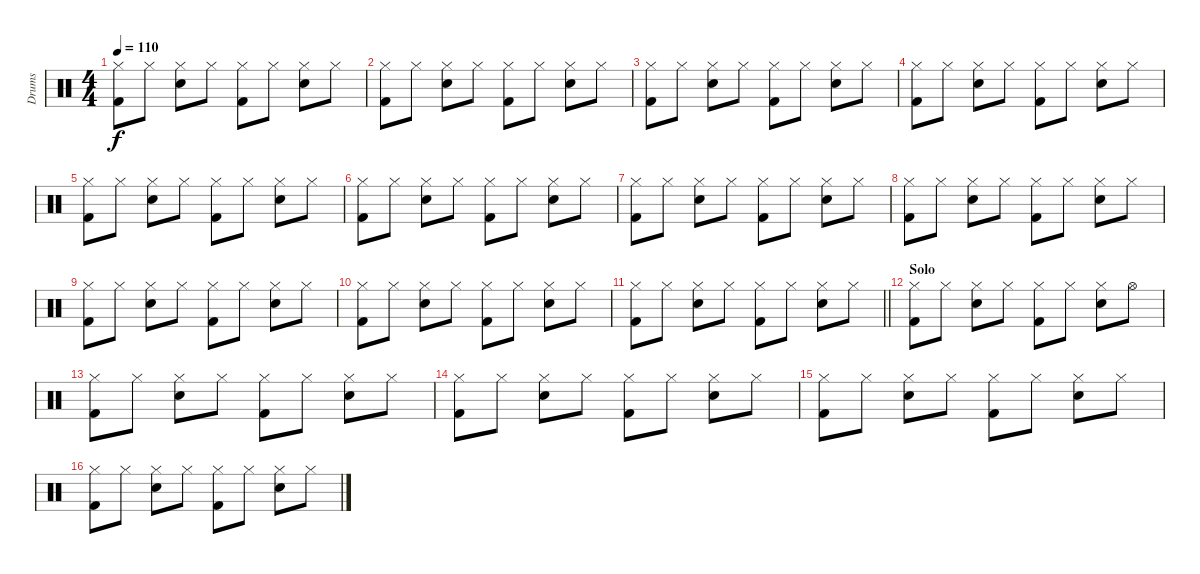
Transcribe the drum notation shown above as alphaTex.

\track ("Drums" "Drums") {instrument percussion}
\staff {score}
\articulation defaults
\ts (4 4)
\tempo 110
\clef neutral
\ks c
("Hi-Hat (closed)" "Kick (hit) 2").8{dy f} "Hi-Hat (closed)".8 ("Hi-Hat (closed)" "Electric Snare (hit)").8 "Hi-Hat (closed)".8 ("Hi-Hat (closed)" "Kick (hit) 2").8 "Hi-Hat (closed)".8 ("Hi-Hat (closed)" "Electric Snare (hit)").8 "Hi-Hat (closed)".8 |
("Hi-Hat (closed)" "Kick (hit) 2").8 "Hi-Hat (closed)".8 ("Hi-Hat (closed)" "Electric Snare (hit)").8 "Hi-Hat (closed)".8 ("Hi-Hat (closed)" "Kick (hit) 2").8 "Hi-Hat (closed)".8 ("Hi-Hat (closed)" "Electric Snare (hit)").8 "Hi-Hat (closed)".8 |
("Hi-Hat (closed)" "Kick (hit) 2").8 "Hi-Hat (closed)".8 ("Hi-Hat (closed)" "Electric Snare (hit)").8 "Hi-Hat (closed)".8 ("Hi-Hat (closed)" "Kick (hit) 2").8 "Hi-Hat (closed)".8 ("Hi-Hat (closed)" "Electric Snare (hit)").8 "Hi-Hat (closed)".8 |
("Hi-Hat (closed)" "Kick (hit) 2").8 "Hi-Hat (closed)".8 ("Hi-Hat (closed)" "Electric Snare (hit)").8 "Hi-Hat (closed)".8 ("Hi-Hat (closed)" "Kick (hit) 2").8 "Hi-Hat (closed)".8 ("Hi-Hat (closed)" "Electric Snare (hit)").8 "Hi-Hat (closed)".8 |
("Hi-Hat (closed)" "Kick (hit) 2").8 "Hi-Hat (closed)".8 ("Hi-Hat (closed)" "Electric Snare (hit)").8 "Hi-Hat (closed)".8 ("Hi-Hat (closed)" "Kick (hit) 2").8 "Hi-Hat (closed)".8 ("Hi-Hat (closed)" "Electric Snare (hit)").8 "Hi-Hat (closed)".8 |
("Hi-Hat (closed)" "Kick (hit) 2").8 "Hi-Hat (closed)".8 ("Hi-Hat (closed)" "Electric Snare (hit)").8 "Hi-Hat (closed)".8 ("Hi-Hat (closed)" "Kick (hit) 2").8 "Hi-Hat (closed)".8 ("Hi-Hat (closed)" "Electric Snare (hit)").8 "Hi-Hat (closed)".8 |
("Hi-Hat (closed)" "Kick (hit) 2").8 "Hi-Hat (closed)".8 ("Hi-Hat (closed)" "Electric Snare (hit)").8 "Hi-Hat (closed)".8 ("Hi-Hat (closed)" "Kick (hit) 2").8 "Hi-Hat (closed)".8 ("Hi-Hat (closed)" "Electric Snare (hit)").8 "Hi-Hat (closed)".8 |
("Hi-Hat (closed)" "Kick (hit) 2").8 "Hi-Hat (closed)".8 ("Hi-Hat (closed)" "Electric Snare (hit)").8 "Hi-Hat (closed)".8 ("Hi-Hat (closed)" "Kick (hit) 2").8 "Hi-Hat (closed)".8 ("Hi-Hat (closed)" "Electric Snare (hit)").8 "Hi-Hat (closed)".8 |
("Hi-Hat (closed)" "Kick (hit) 2").8 "Hi-Hat (closed)".8 ("Hi-Hat (closed)" "Electric Snare (hit)").8 "Hi-Hat (closed)".8 ("Hi-Hat (closed)" "Kick (hit) 2").8 "Hi-Hat (closed)".8 ("Hi-Hat (closed)" "Electric Snare (hit)").8 "Hi-Hat (closed)".8 |
("Hi-Hat (closed)" "Kick (hit) 2").8 "Hi-Hat (closed)".8 ("Hi-Hat (closed)" "Electric Snare (hit)").8 "Hi-Hat (closed)".8 ("Hi-Hat (closed)" "Kick (hit) 2").8 "Hi-Hat (closed)".8 ("Hi-Hat (closed)" "Electric Snare (hit)").8 "Hi-Hat (closed)".8 |
\barLineRight lightlight
("Hi-Hat (closed)" "Kick (hit) 2").8 "Hi-Hat (closed)".8 ("Hi-Hat (closed)" "Electric Snare (hit)").8 "Hi-Hat (closed)".8 ("Hi-Hat (closed)" "Kick (hit) 2").8 "Hi-Hat (closed)".8 ("Hi-Hat (closed)" "Electric Snare (hit)").8 "Hi-Hat (closed)".8 |
\section ("" "Solo")
("Hi-Hat (closed)" "Kick (hit) 2").8 "Hi-Hat (closed)".8 ("Hi-Hat (closed)" "Electric Snare (hit)").8 "Hi-Hat (closed)".8 ("Hi-Hat (closed)" "Kick (hit) 2").8 "Hi-Hat (closed)".8 ("Hi-Hat (closed)" "Electric Snare (hit)").8 "Hi-Hat (open)".8 |
("Hi-Hat (closed)" "Kick (hit) 2").8 "Hi-Hat (closed)".8 ("Hi-Hat (closed)" "Electric Snare (hit)").8 "Hi-Hat (closed)".8 ("Hi-Hat (closed)" "Kick (hit) 2").8 "Hi-Hat (closed)".8 ("Hi-Hat (closed)" "Electric Snare (hit)").8 "Hi-Hat (closed)".8 |
("Hi-Hat (closed)" "Kick (hit) 2").8 "Hi-Hat (closed)".8 ("Hi-Hat (closed)" "Electric Snare (hit)").8 "Hi-Hat (closed)".8 ("Hi-Hat (closed)" "Kick (hit) 2").8 "Hi-Hat (closed)".8 ("Hi-Hat (closed)" "Electric Snare (hit)").8 "Hi-Hat (closed)".8 |
("Hi-Hat (closed)" "Kick (hit) 2").8 "Hi-Hat (closed)".8 ("Hi-Hat (closed)" "Electric Snare (hit)").8 "Hi-Hat (closed)".8 ("Hi-Hat (closed)" "Kick (hit) 2").8 "Hi-Hat (closed)".8 ("Hi-Hat (closed)" "Electric Snare (hit)").8 "Hi-Hat (closed)".8 |
("Hi-Hat (closed)" "Kick (hit) 2").8 "Hi-Hat (closed)".8 ("Hi-Hat (closed)" "Electric Snare (hit)").8 "Hi-Hat (closed)".8 ("Hi-Hat (closed)" "Kick (hit) 2").8 "Hi-Hat (closed)".8 ("Hi-Hat (closed)" "Electric Snare (hit)").8 "Hi-Hat (closed)".8
